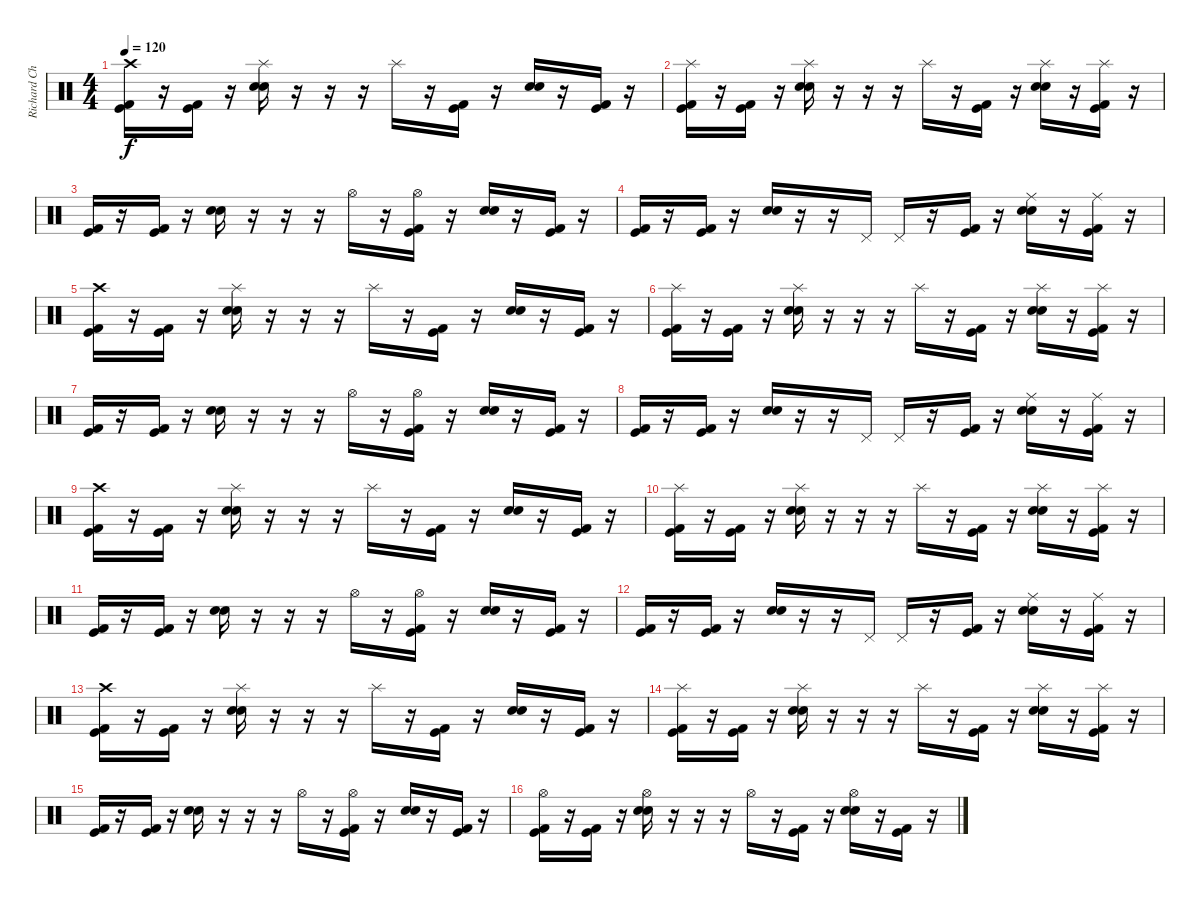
\track ("Richard Christy" "Richard Ch") {instrument percussion}
\staff {score}
\articulation defaults
\ts (4 4)
\tempo 120
\clef neutral
\ks c
("Crash high (hit)" "Kick (hit)" "Kick (hit) 2").16{dy f} r.16 ("Kick (hit)" "Kick (hit) 2").16 r.16 ("Splash (hit)" "Electric Snare (hit)" "Snare (hit) 2").16 r.16 r.16 r.16 "Splash (hit)".16 r.16 ("Kick (hit)" "Kick (hit) 2").16 r.16 ("Electric Snare (hit)" "Snare (hit) 2").16 r.16 ("Kick (hit)" "Kick (hit) 2").16 r.16 |
("Splash (hit)" "Kick (hit)" "Kick (hit) 2").16 r.16 ("Kick (hit)" "Kick (hit) 2").16 r.16 ("Splash (hit)" "Electric Snare (hit)" "Snare (hit) 2").16 r.16 r.16 r.16 "Splash (hit)".16 r.16 ("Kick (hit)" "Kick (hit) 2").16 r.16 ("Splash (hit)" "Electric Snare (hit)" "Snare (hit) 2").16 r.16 ("Splash (hit)" "Kick (hit)" "Kick (hit) 2").16 r.16 |
("Kick (hit)" "Kick (hit) 2").16 r.16 ("Kick (hit)" "Kick (hit) 2").16 r.16 ("Electric Snare (hit)" "Snare (hit) 2").16 r.16 r.16 r.16 "Hi-Hat (open)".16 r.16 ("Hi-Hat (open)" "Kick (hit)" "Kick (hit) 2").16 r.16 ("Electric Snare (hit)" "Snare (hit) 2").16 r.16 ("Kick (hit)" "Kick (hit) 2").16 r.16 |
("Kick (hit)" "Kick (hit) 2").16 r.16 ("Kick (hit)" "Kick (hit) 2").16 r.16 ("Electric Snare (hit)" "Snare (hit) 2").16 r.16 r.16 "Pedal Hi-Hat (hit)".16 "Pedal Hi-Hat (hit)".16 r.16 ("Kick (hit)" "Kick (hit) 2").16 r.16 ("Ride (middle)" "Electric Snare (hit)" "Snare (hit) 2").16 r.16 ("Ride (middle)" "Kick (hit)" "Kick (hit) 2").16 r.16 |
("Crash high (hit)" "Kick (hit)" "Kick (hit) 2").16 r.16 ("Kick (hit)" "Kick (hit) 2").16 r.16 ("Splash (hit)" "Electric Snare (hit)" "Snare (hit) 2").16 r.16 r.16 r.16 "Splash (hit)".16 r.16 ("Kick (hit)" "Kick (hit) 2").16 r.16 ("Electric Snare (hit)" "Snare (hit) 2").16 r.16 ("Kick (hit)" "Kick (hit) 2").16 r.16 |
("Splash (hit)" "Kick (hit)" "Kick (hit) 2").16 r.16 ("Kick (hit)" "Kick (hit) 2").16 r.16 ("Splash (hit)" "Electric Snare (hit)" "Snare (hit) 2").16 r.16 r.16 r.16 "Splash (hit)".16 r.16 ("Kick (hit)" "Kick (hit) 2").16 r.16 ("Splash (hit)" "Electric Snare (hit)" "Snare (hit) 2").16 r.16 ("Splash (hit)" "Kick (hit)" "Kick (hit) 2").16 r.16 |
("Kick (hit)" "Kick (hit) 2").16 r.16 ("Kick (hit)" "Kick (hit) 2").16 r.16 ("Electric Snare (hit)" "Snare (hit) 2").16 r.16 r.16 r.16 "Hi-Hat (open)".16 r.16 ("Hi-Hat (open)" "Kick (hit)" "Kick (hit) 2").16 r.16 ("Electric Snare (hit)" "Snare (hit) 2").16 r.16 ("Kick (hit)" "Kick (hit) 2").16 r.16 |
("Kick (hit)" "Kick (hit) 2").16 r.16 ("Kick (hit)" "Kick (hit) 2").16 r.16 ("Electric Snare (hit)" "Snare (hit) 2").16 r.16 r.16 "Pedal Hi-Hat (hit)".16 "Pedal Hi-Hat (hit)".16 r.16 ("Kick (hit)" "Kick (hit) 2").16 r.16 ("Ride (middle)" "Electric Snare (hit)" "Snare (hit) 2").16 r.16 ("Ride (middle)" "Kick (hit)" "Kick (hit) 2").16 r.16 |
("Crash high (hit)" "Kick (hit)" "Kick (hit) 2").16 r.16 ("Kick (hit)" "Kick (hit) 2").16 r.16 ("Splash (hit)" "Electric Snare (hit)" "Snare (hit) 2").16 r.16 r.16 r.16 "Splash (hit)".16 r.16 ("Kick (hit)" "Kick (hit) 2").16 r.16 ("Electric Snare (hit)" "Snare (hit) 2").16 r.16 ("Kick (hit)" "Kick (hit) 2").16 r.16 |
("Splash (hit)" "Kick (hit)" "Kick (hit) 2").16 r.16 ("Kick (hit)" "Kick (hit) 2").16 r.16 ("Splash (hit)" "Electric Snare (hit)" "Snare (hit) 2").16 r.16 r.16 r.16 "Splash (hit)".16 r.16 ("Kick (hit)" "Kick (hit) 2").16 r.16 ("Splash (hit)" "Electric Snare (hit)" "Snare (hit) 2").16 r.16 ("Splash (hit)" "Kick (hit)" "Kick (hit) 2").16 r.16 |
("Kick (hit)" "Kick (hit) 2").16 r.16 ("Kick (hit)" "Kick (hit) 2").16 r.16 ("Electric Snare (hit)" "Snare (hit) 2").16 r.16 r.16 r.16 "Hi-Hat (open)".16 r.16 ("Hi-Hat (open)" "Kick (hit)" "Kick (hit) 2").16 r.16 ("Electric Snare (hit)" "Snare (hit) 2").16 r.16 ("Kick (hit)" "Kick (hit) 2").16 r.16 |
("Kick (hit)" "Kick (hit) 2").16 r.16 ("Kick (hit)" "Kick (hit) 2").16 r.16 ("Electric Snare (hit)" "Snare (hit) 2").16 r.16 r.16 "Pedal Hi-Hat (hit)".16 "Pedal Hi-Hat (hit)".16 r.16 ("Kick (hit)" "Kick (hit) 2").16 r.16 ("Ride (middle)" "Electric Snare (hit)" "Snare (hit) 2").16 r.16 ("Ride (middle)" "Kick (hit)" "Kick (hit) 2").16 r.16 |
("Crash high (hit)" "Kick (hit)" "Kick (hit) 2").16 r.16 ("Kick (hit)" "Kick (hit) 2").16 r.16 ("Splash (hit)" "Electric Snare (hit)" "Snare (hit) 2").16 r.16 r.16 r.16 "Splash (hit)".16 r.16 ("Kick (hit)" "Kick (hit) 2").16 r.16 ("Electric Snare (hit)" "Snare (hit) 2").16 r.16 ("Kick (hit)" "Kick (hit) 2").16 r.16 |
("Splash (hit)" "Kick (hit)" "Kick (hit) 2").16 r.16 ("Kick (hit)" "Kick (hit) 2").16 r.16 ("Splash (hit)" "Electric Snare (hit)" "Snare (hit) 2").16 r.16 r.16 r.16 "Splash (hit)".16 r.16 ("Kick (hit)" "Kick (hit) 2").16 r.16 ("Splash (hit)" "Electric Snare (hit)" "Snare (hit) 2").16 r.16 ("Splash (hit)" "Kick (hit)" "Kick (hit) 2").16 r.16 |
("Kick (hit)" "Kick (hit) 2").16 r.16 ("Kick (hit)" "Kick (hit) 2").16 r.16 ("Electric Snare (hit)" "Snare (hit) 2").16 r.16 r.16 r.16 "Hi-Hat (open)".16 r.16 ("Hi-Hat (open)" "Kick (hit)" "Kick (hit) 2").16 r.16 ("Electric Snare (hit)" "Snare (hit) 2").16 r.16 ("Kick (hit)" "Kick (hit) 2").16 r.16 |
("Hi-Hat (open)" "Kick (hit)" "Kick (hit) 2").16 r.16 ("Kick (hit)" "Kick (hit) 2").16 r.16 ("Hi-Hat (open)" "Electric Snare (hit)" "Snare (hit) 2").16 r.16 r.16 r.16 "Hi-Hat (open)".16 r.16 ("Kick (hit)" "Kick (hit) 2").16 r.16 ("Hi-Hat (open)" "Electric Snare (hit)" "Snare (hit) 2").16 r.16 ("Kick (hit)" "Kick (hit) 2").16 r.16
